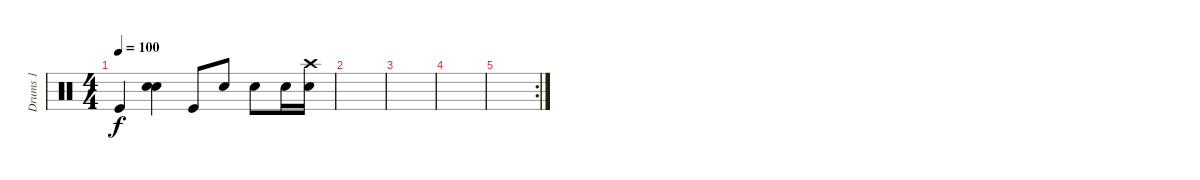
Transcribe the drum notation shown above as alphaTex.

\track ("Drums 1" "Drums 1") {instrument percussion}
\staff {score}
\articulation defaults
\ts (4 4)
\tempo 100
\clef neutral
\ks c "Kick (hit)".4{dy f}
("Electric Snare (hit)" "Snare (hit) 2").4 "Kick (hit)".8 "Electric Snare (hit)".8 "Electric Snare (hit)".8 "Electric Snare (hit)".16 ("Electric Snare (hit)" "Crash high (hit)").16 |
|
|
|
\rc 2
